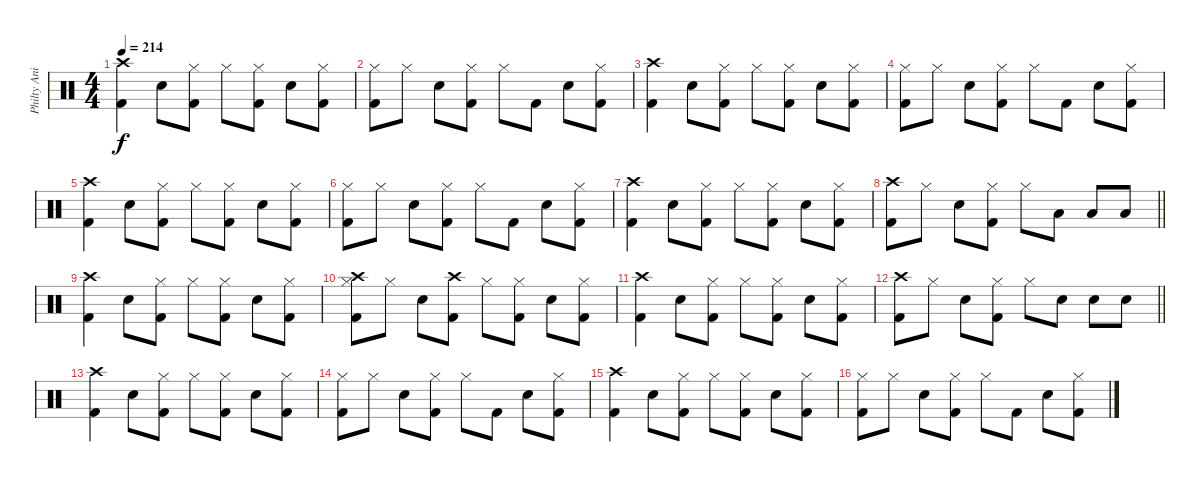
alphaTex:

\track ("Philty Animal" "Philty Ani") {instrument percussion}
\staff {score}
\articulation defaults
\ts (4 4)
\tempo 214
\clef neutral
\ks c
("Kick (hit) 2" "Crash high (hit)").4{dy f} "Snare (hit) 2".8 ("Kick (hit) 2" "Hi-Hat (closed)").8 "Hi-Hat (closed)".8 ("Kick (hit) 2" "Hi-Hat (closed)").8 "Snare (hit) 2".8 ("Kick (hit) 2" "Hi-Hat (closed)").8 |
("Kick (hit) 2" "Hi-Hat (closed)").8 "Hi-Hat (closed)".8 "Snare (hit) 2".8 ("Hi-Hat (closed)" "Kick (hit) 2").8 "Hi-Hat (closed)".8 "Kick (hit) 2".8 "Snare (hit) 2".8 ("Kick (hit) 2" "Hi-Hat (closed)").8 |
("Kick (hit) 2" "Crash high (hit)").4 "Snare (hit) 2".8 ("Kick (hit) 2" "Hi-Hat (closed)").8 "Hi-Hat (closed)".8 ("Kick (hit) 2" "Hi-Hat (closed)").8 "Snare (hit) 2".8 ("Kick (hit) 2" "Hi-Hat (closed)").8 |
("Kick (hit) 2" "Hi-Hat (closed)").8 "Hi-Hat (closed)".8 "Snare (hit) 2".8 ("Hi-Hat (closed)" "Kick (hit) 2").8 "Hi-Hat (closed)".8 "Kick (hit) 2".8 "Snare (hit) 2".8 ("Kick (hit) 2" "Hi-Hat (closed)").8 |
("Kick (hit) 2" "Crash high (hit)").4 "Snare (hit) 2".8 ("Kick (hit) 2" "Hi-Hat (closed)").8 "Hi-Hat (closed)".8 ("Kick (hit) 2" "Hi-Hat (closed)").8 "Snare (hit) 2".8 ("Kick (hit) 2" "Hi-Hat (closed)").8 |
("Kick (hit) 2" "Hi-Hat (closed)").8 "Hi-Hat (closed)".8 "Snare (hit) 2".8 ("Hi-Hat (closed)" "Kick (hit) 2").8 "Hi-Hat (closed)".8 "Kick (hit) 2".8 "Snare (hit) 2".8 ("Kick (hit) 2" "Hi-Hat (closed)").8 |
("Kick (hit) 2" "Crash high (hit)").4 "Snare (hit) 2".8 ("Kick (hit) 2" "Hi-Hat (closed)").8 "Hi-Hat (closed)".8 ("Kick (hit) 2" "Hi-Hat (closed)").8 "Snare (hit) 2".8 ("Kick (hit) 2" "Hi-Hat (closed)").8 |
\barLineRight lightlight
("Crash high (hit)" "Kick (hit) 2").8 "Hi-Hat (closed)".8 "Snare (hit) 2".8 ("Hi-Hat (closed)" "Kick (hit) 2").8 "Hi-Hat (closed)".8 "Low Tom (hit)".8 "Low Tom (hit)".8 "Low Tom (hit)".8 |
("Kick (hit) 2" "Crash high (hit)").4 "Snare (hit) 2".8 ("Kick (hit) 2" "Hi-Hat (closed)").8 "Hi-Hat (closed)".8 ("Kick (hit) 2" "Hi-Hat (closed)").8 "Snare (hit) 2".8 ("Kick (hit) 2" "Hi-Hat (closed)").8 |
("Crash high (hit)" "Kick (hit) 2" "Hi-Hat (closed)").8 "Hi-Hat (closed)".8 "Snare (hit) 2".8 ("Crash high (hit)" "Kick (hit) 2").8 "Hi-Hat (closed)".8 ("Kick (hit) 2" "Hi-Hat (closed)").8 "Snare (hit) 2".8 ("Kick (hit) 2" "Hi-Hat (closed)").8 |
("Kick (hit) 2" "Crash high (hit)").4 "Snare (hit) 2".8 ("Kick (hit) 2" "Hi-Hat (closed)").8 "Hi-Hat (closed)".8 ("Kick (hit) 2" "Hi-Hat (closed)").8 "Snare (hit) 2".8 ("Kick (hit) 2" "Hi-Hat (closed)").8 |
\barLineRight lightlight
("Crash high (hit)" "Kick (hit) 2").8 "Hi-Hat (closed)".8 "Snare (hit) 2".8 ("Hi-Hat (closed)" "Kick (hit) 2").8 "Hi-Hat (closed)".8 "Snare (hit) 2".8 "Snare (hit) 2".8 "Snare (hit) 2".8 |
("Kick (hit) 2" "Crash high (hit)").4 "Snare (hit) 2".8 ("Kick (hit) 2" "Hi-Hat (closed)").8 "Hi-Hat (closed)".8 ("Kick (hit) 2" "Hi-Hat (closed)").8 "Snare (hit) 2".8 ("Kick (hit) 2" "Hi-Hat (closed)").8 |
("Kick (hit) 2" "Hi-Hat (closed)").8 "Hi-Hat (closed)".8 "Snare (hit) 2".8 ("Hi-Hat (closed)" "Kick (hit) 2").8 "Hi-Hat (closed)".8 "Kick (hit) 2".8 "Snare (hit) 2".8 ("Kick (hit) 2" "Hi-Hat (closed)").8 |
("Kick (hit) 2" "Crash high (hit)").4 "Snare (hit) 2".8 ("Kick (hit) 2" "Hi-Hat (closed)").8 "Hi-Hat (closed)".8 ("Kick (hit) 2" "Hi-Hat (closed)").8 "Snare (hit) 2".8 ("Kick (hit) 2" "Hi-Hat (closed)").8 |
("Kick (hit) 2" "Hi-Hat (closed)").8 "Hi-Hat (closed)".8 "Snare (hit) 2".8 ("Hi-Hat (closed)" "Kick (hit) 2").8 "Hi-Hat (closed)".8 "Kick (hit) 2".8 "Snare (hit) 2".8 ("Kick (hit) 2" "Hi-Hat (closed)").8
